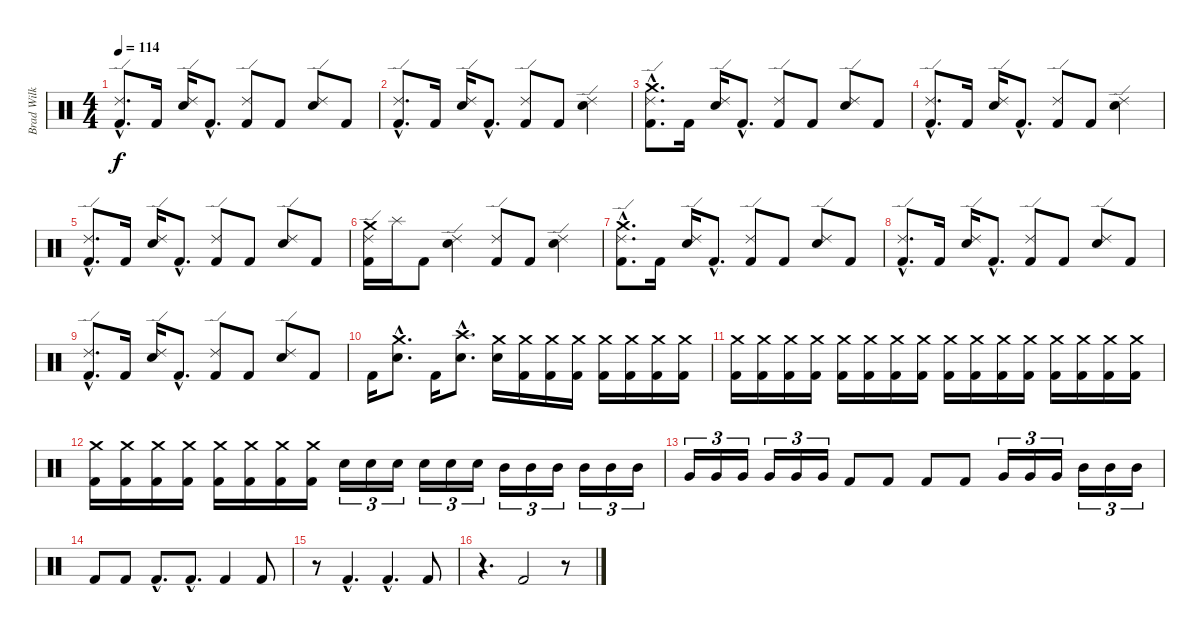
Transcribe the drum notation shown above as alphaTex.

\track ("Brad Wilk" "Brad Wilk") {instrument percussion}
\staff {score}
\articulation defaults
\ts (4 4)
\tempo 114
\clef neutral
\ks c
("Ride (edge) 2"{hac} "Kick (hit) 2"{hac}).8{d dy f} "Kick (hit) 2".16 ("Ride (edge) 2" "Snare (hit) 2").16 "Kick (hit) 2"{hac}.8{d} ("Ride (edge) 2" "Kick (hit) 2").8 "Kick (hit) 2".8 ("Ride (edge) 2" "Snare (hit) 2").8 "Kick (hit) 2".8 |
("Ride (edge) 2"{hac} "Kick (hit) 2"{hac}).8{d} "Kick (hit) 2".16 ("Ride (edge) 2" "Snare (hit) 2").16 "Kick (hit) 2"{hac}.8{d} ("Ride (edge) 2" "Kick (hit) 2").8 "Kick (hit) 2".8 ("Ride (edge) 2" "Snare (hit) 2").4 |
("Ride (edge) 2"{hac} "Kick (hit) 2"{hac} "Crash medium (hit)"{hac}).8{d} "Kick (hit) 2".16 ("Ride (edge) 2" "Snare (hit) 2").16 "Kick (hit) 2"{hac}.8{d} ("Ride (edge) 2" "Kick (hit) 2").8 "Kick (hit) 2".8 ("Ride (edge) 2" "Snare (hit) 2").8 "Kick (hit) 2".8 |
("Ride (edge) 2"{hac} "Kick (hit) 2"{hac}).8{d} "Kick (hit) 2".16 ("Ride (edge) 2" "Snare (hit) 2").16 "Kick (hit) 2"{hac}.8{d} ("Ride (edge) 2" "Kick (hit) 2").8 "Kick (hit) 2".8 ("Ride (edge) 2" "Snare (hit) 2").4 |
("Ride (edge) 2"{hac} "Kick (hit) 2"{hac}).8{d} "Kick (hit) 2".16 ("Ride (edge) 2" "Snare (hit) 2").16 "Kick (hit) 2"{hac}.8{d} ("Ride (edge) 2" "Kick (hit) 2").8 "Kick (hit) 2".8 ("Ride (edge) 2" "Snare (hit) 2").8 "Kick (hit) 2".8 |
("Ride (edge) 2" "Kick (hit) 2" "Crash medium (hit)").16 "Splash (hit)".16 "Kick (hit) 2".8 ("Ride (edge) 2" "Snare (hit) 2").4 ("Ride (edge) 2" "Kick (hit) 2").8 "Kick (hit) 2".8 ("Ride (edge) 2" "Snare (hit) 2").4 |
("Ride (edge) 2"{hac} "Kick (hit) 2"{hac} "Crash medium (hit)"{hac}).8{d} "Kick (hit) 2".16 ("Ride (edge) 2" "Snare (hit) 2").16 "Kick (hit) 2"{hac}.8{d} ("Ride (edge) 2" "Kick (hit) 2").8 "Kick (hit) 2".8 ("Ride (edge) 2" "Snare (hit) 2").8 "Kick (hit) 2".8 |
("Ride (edge) 2"{hac} "Kick (hit) 2"{hac}).8{d} "Kick (hit) 2".16 ("Ride (edge) 2" "Snare (hit) 2").16 "Kick (hit) 2"{hac}.8{d} ("Ride (edge) 2" "Kick (hit) 2").8 "Kick (hit) 2".8 ("Ride (edge) 2" "Snare (hit) 2").8 "Kick (hit) 2".8 |
("Ride (edge) 2"{hac} "Kick (hit) 2"{hac}).8{d} "Kick (hit) 2".16 ("Ride (edge) 2" "Snare (hit) 2").16 "Kick (hit) 2"{hac}.8{d} ("Ride (edge) 2" "Kick (hit) 2").8 "Kick (hit) 2".8 ("Ride (edge) 2" "Snare (hit) 2").8 "Kick (hit) 2".8 |
"Kick (hit) 2".16 ("Snare (hit) 2"{hac} "Crash medium (hit)"{hac}).8{d} "Kick (hit) 2".16 ("Snare (hit) 2"{hac} "Crash high (hit)"{hac}).8{d} ("Snare (hit) 2" "Crash medium (hit)").16 ("Crash medium (hit)" "Kick (hit) 2").16 ("Crash medium (hit)" "Kick (hit) 2").16 ("Crash medium (hit)" "Kick (hit) 2").16 ("Crash medium (hit)" "Kick (hit) 2").16 ("Crash medium (hit)" "Kick (hit) 2").16 ("Crash medium (hit)" "Kick (hit) 2").16 ("Crash medium (hit)" "Kick (hit) 2").16 |
("Crash medium (hit)" "Kick (hit) 2").16 ("Crash medium (hit)" "Kick (hit) 2").16 ("Crash medium (hit)" "Kick (hit) 2").16 ("Crash medium (hit)" "Kick (hit) 2").16 ("Crash medium (hit)" "Kick (hit) 2").16 ("Crash medium (hit)" "Kick (hit) 2").16 ("Crash medium (hit)" "Kick (hit) 2").16 ("Crash medium (hit)" "Kick (hit) 2").16 ("Crash medium (hit)" "Kick (hit) 2").16 ("Crash medium (hit)" "Kick (hit) 2").16 ("Crash medium (hit)" "Kick (hit) 2").16 ("Crash medium (hit)" "Kick (hit) 2").16 ("Crash medium (hit)" "Kick (hit) 2").16 ("Crash medium (hit)" "Kick (hit) 2").16 ("Crash medium (hit)" "Kick (hit) 2").16 ("Crash medium (hit)" "Kick (hit) 2").16 |
("Crash medium (hit)" "Kick (hit) 2").16 ("Crash medium (hit)" "Kick (hit) 2").16 ("Crash medium (hit)" "Kick (hit) 2").16 ("Crash medium (hit)" "Kick (hit) 2").16 ("Crash medium (hit)" "Kick (hit) 2").16 ("Crash medium (hit)" "Kick (hit) 2").16 ("Crash medium (hit)" "Kick (hit) 2").16 ("Crash medium (hit)" "Kick (hit) 2").16 "Snare (hit) 2".16{tu (3 2)} "Snare (hit) 2".16{tu (3 2)} "Snare (hit) 2".16{tu (3 2)} "Snare (hit) 2".16{tu (3 2)} "Snare (hit) 2".16{tu (3 2)} "Snare (hit) 2".16{tu (3 2)} "Mid Tom (hit)".16{tu (3 2)} "Mid Tom (hit)".16{tu (3 2)} "Mid Tom (hit)".16{tu (3 2)} "Mid Tom (hit)".16{tu (3 2)} "Mid Tom (hit)".16{tu (3 2)} "Mid Tom (hit)".16{tu (3 2)} |
"Very Low Tom (hit)".16{tu (3 2)} "Very Low Tom (hit)".16{tu (3 2)} "Very Low Tom (hit)".16{tu (3 2)} "Very Low Tom (hit)".16{tu (3 2)} "Very Low Tom (hit)".16{tu (3 2)} "Very Low Tom (hit)".16{tu (3 2)} "Kick (hit) 2".8 "Kick (hit) 2".8 "Kick (hit) 2".8 "Kick (hit) 2".8 "Very Low Tom (hit)".16{tu (3 2)} "Very Low Tom (hit)".16{tu (3 2)} "Very Low Tom (hit)".16{tu (3 2)} "Mid Tom (hit)".16{tu (3 2)} "Mid Tom (hit)".16{tu (3 2)} "Mid Tom (hit)".16{tu (3 2)} |
"Kick (hit) 2".8 "Kick (hit) 2".8 "Kick (hit) 2"{hac}.8{d} "Kick (hit) 2"{hac}.8{d} "Kick (hit) 2".4 "Kick (hit) 2".8 |
r.8 "Kick (hit) 2"{hac}.4{d} "Kick (hit) 2"{hac}.4{d} "Kick (hit) 2".8 |
r.4{d} "Kick (hit) 2".2 r.8
